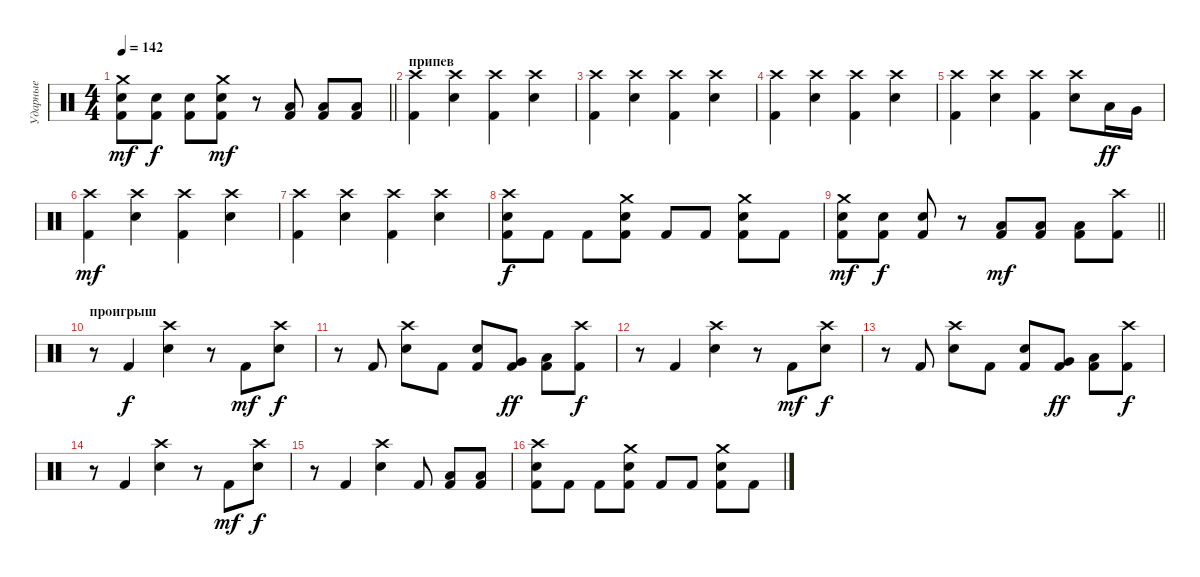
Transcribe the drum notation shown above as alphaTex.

\track ("Ударные" "Ударные") {instrument percussion}
\staff {score}
\articulation defaults
\ts (4 4)
\tempo 142
\clef neutral
\barLineRight lightlight
\ks c
("Kick (hit) 2" "Electric Snare (hit)" "Crash medium (hit)").8{dy mf} ("Kick (hit) 2" "Electric Snare (hit)").8{dy f} ("Kick (hit) 2" "Electric Snare (hit)").8 ("Kick (hit) 2" "Electric Snare (hit)" "Crash medium (hit)").8{dy mf} r.8 ("Kick (hit) 2" "Low Floor Tom (hit)").8 ("Kick (hit) 2" "Low Floor Tom (hit)").8 ("Kick (hit) 2" "Low Floor Tom (hit)").8 |
\section ("" "припев")
("Kick (hit) 2" "Crash high (hit)").4 ("Electric Snare (hit)" "Crash high (hit)").4 ("Kick (hit) 2" "Crash high (hit)").4 ("Electric Snare (hit)" "Crash high (hit)").4 |
("Kick (hit) 2" "Crash high (hit)").4 ("Electric Snare (hit)" "Crash high (hit)").4 ("Kick (hit) 2" "Crash high (hit)").4 ("Electric Snare (hit)" "Crash high (hit)").4 |
("Kick (hit) 2" "Crash high (hit)").4 ("Electric Snare (hit)" "Crash high (hit)").4 ("Kick (hit) 2" "Crash high (hit)").4 ("Electric Snare (hit)" "Crash high (hit)").4 |
("Kick (hit) 2" "Crash high (hit)").4 ("Electric Snare (hit)" "Crash high (hit)").4 ("Kick (hit) 2" "Crash high (hit)").4 ("Electric Snare (hit)" "Crash high (hit)").8 "Low Floor Tom (hit)".16{dy ff} "Very Low Tom (hit)".16 |
("Kick (hit) 2" "Crash high (hit)").4{dy mf} ("Electric Snare (hit)" "Crash high (hit)").4 ("Kick (hit) 2" "Crash high (hit)").4 ("Electric Snare (hit)" "Crash high (hit)").4 |
("Kick (hit) 2" "Crash high (hit)").4 ("Electric Snare (hit)" "Crash high (hit)").4 ("Kick (hit) 2" "Crash high (hit)").4 ("Electric Snare (hit)" "Crash high (hit)").4 |
("Kick (hit) 2" "Electric Snare (hit)" "Crash high (hit)").8{dy f} "Kick (hit) 2".8 "Kick (hit) 2".8 ("Kick (hit) 2" "Electric Snare (hit)" "Crash medium (hit)").8 "Kick (hit) 2".8 "Kick (hit) 2".8 ("Kick (hit) 2" "Electric Snare (hit)" "Crash medium (hit)").8 "Kick (hit) 2".8 |
\barLineRight lightlight
("Kick (hit) 2" "Electric Snare (hit)" "Crash medium (hit)").8{dy mf} ("Kick (hit) 2" "Electric Snare (hit)").8{dy f} ("Kick (hit) 2" "Electric Snare (hit)").8 r.8 ("Kick (hit) 2" "Low Floor Tom (hit)").8{dy mf} ("Kick (hit) 2" "Low Floor Tom (hit)").8 ("Kick (hit) 2" "Low Floor Tom (hit)").8 ("Kick (hit) 2" "Crash high (hit)").8 |
\section ("" "проигрыш")
r.8 "Kick (hit) 2".4{dy f} ("Electric Snare (hit)" "Crash high (hit)").4 r.8 "Kick (hit) 2".8{dy mf} ("Electric Snare (hit)" "Crash high (hit)").8{dy f} |
r.8 "Kick (hit) 2".8 ("Electric Snare (hit)" "Crash high (hit)").8 "Kick (hit) 2".8 ("Kick (hit) 2" "Electric Snare (hit)").8 ("Kick (hit) 2" "Very Low Tom (hit)").8{dy ff} ("Kick (hit) 2" "Low Floor Tom (hit)").8 ("Kick (hit) 2" "Crash high (hit)").8{dy f} |
r.8 "Kick (hit) 2".4 ("Electric Snare (hit)" "Crash high (hit)").4 r.8 "Kick (hit) 2".8{dy mf} ("Electric Snare (hit)" "Crash high (hit)").8{dy f} |
r.8 "Kick (hit) 2".8 ("Electric Snare (hit)" "Crash high (hit)").8 "Kick (hit) 2".8 ("Kick (hit) 2" "Electric Snare (hit)").8 ("Kick (hit) 2" "Very Low Tom (hit)").8{dy ff} ("Kick (hit) 2" "Low Floor Tom (hit)").8 ("Kick (hit) 2" "Crash high (hit)").8{dy f} |
r.8 "Kick (hit) 2".4 ("Electric Snare (hit)" "Crash high (hit)").4 r.8 "Kick (hit) 2".8{dy mf} ("Electric Snare (hit)" "Crash high (hit)").8{dy f} |
r.8 "Kick (hit) 2".4 ("Electric Snare (hit)" "Crash high (hit)").4 "Kick (hit) 2".8 ("Kick (hit) 2" "Low Floor Tom (hit)").8 ("Kick (hit) 2" "Low Floor Tom (hit)").8 |
("Kick (hit) 2" "Electric Snare (hit)" "Crash high (hit)").8 "Kick (hit) 2".8 "Kick (hit) 2".8 ("Kick (hit) 2" "Electric Snare (hit)" "Crash medium (hit)").8 "Kick (hit) 2".8 "Kick (hit) 2".8 ("Kick (hit) 2" "Electric Snare (hit)" "Crash medium (hit)").8 "Kick (hit) 2".8
